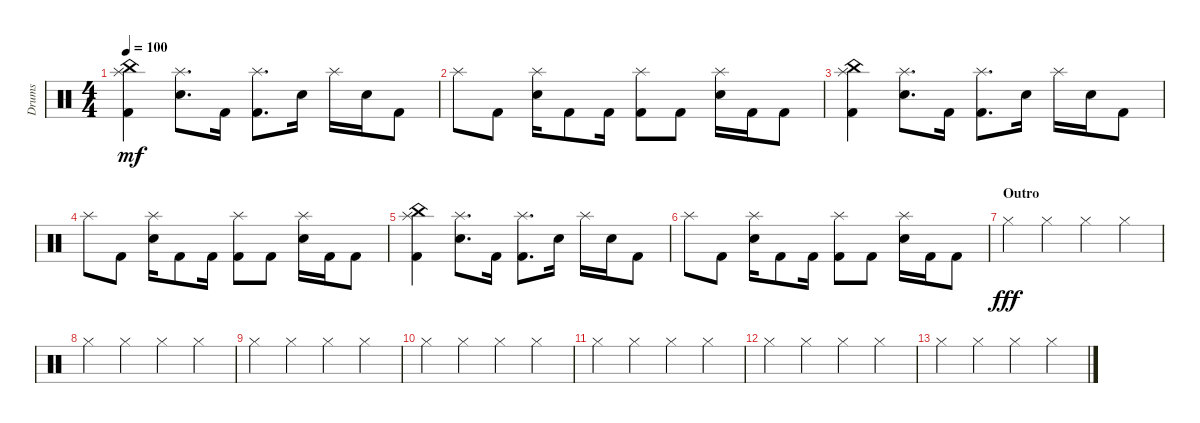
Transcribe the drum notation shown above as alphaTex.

\defaultSystemsLayout 4
\bracketExtendMode groupsimilarinstruments
\otherSystemsTrackNameOrientation horizontal
\track ("Prakarsh" "Drums") {instrument percussion}
\staff {score}
\articulation defaults
\ts (4 4)
\tempo 100
\clef neutral
\ks c
("Kick (hit) 2" "China (hit)" "Splash (hit)").4{dy mf beam Down} ("Snare (hit) 2" "Splash (hit)").8{d beam Down} "Kick (hit) 2".16{beam Down} ("Kick (hit) 2" "Splash (hit)").8{d beam Down} "Snare (hit) 2".16{beam Down} "Splash (hit)".16{beam Down} "Snare (hit) 2".16{beam Down} "Kick (hit) 2".8{beam Down} |
"Splash (hit)".8{beam Down} "Kick (hit) 2".8{beam Down} ("Snare (hit) 2" "Splash (hit)").16{beam Down} "Kick (hit) 2".8{beam Down} "Kick (hit) 2".16{beam Down} ("Kick (hit) 2" "Splash (hit)").8{beam Down} "Kick (hit) 2".8{beam Down} ("Snare (hit) 2" "Splash (hit)").16{beam Down} "Kick (hit) 2".16{beam Down} "Kick (hit) 2".8{beam Down} |
("Kick (hit) 2" "China (hit)" "Splash (hit)").4{beam Down} ("Snare (hit) 2" "Splash (hit)").8{d beam Down} "Kick (hit) 2".16{beam Down} ("Kick (hit) 2" "Splash (hit)").8{d beam Down} "Snare (hit) 2".16{beam Down} "Splash (hit)".16{beam Down} "Snare (hit) 2".16{beam Down} "Kick (hit) 2".8{beam Down} |
"Splash (hit)".8{beam Down} "Kick (hit) 2".8{beam Down} ("Snare (hit) 2" "Splash (hit)").16{beam Down} "Kick (hit) 2".8{beam Down} "Kick (hit) 2".16{beam Down} ("Kick (hit) 2" "Splash (hit)").8{beam Down} "Kick (hit) 2".8{beam Down} ("Snare (hit) 2" "Splash (hit)").16{beam Down} "Kick (hit) 2".16{beam Down} "Kick (hit) 2".8{beam Down} |
("Kick (hit) 2" "China (hit)" "Splash (hit)").4{beam Down} ("Snare (hit) 2" "Splash (hit)").8{d beam Down} "Kick (hit) 2".16{beam Down} ("Kick (hit) 2" "Splash (hit)").8{d beam Down} "Snare (hit) 2".16{beam Down} "Splash (hit)".16{beam Down} "Snare (hit) 2".16{beam Down} "Kick (hit) 2".8{beam Down} |
"Splash (hit)".8{beam Down} "Kick (hit) 2".8{beam Down} ("Snare (hit) 2" "Splash (hit)").16{beam Down} "Kick (hit) 2".8{beam Down} "Kick (hit) 2".16{beam Down} ("Kick (hit) 2" "Splash (hit)").8{beam Down} "Kick (hit) 2".8{beam Down} ("Snare (hit) 2" "Splash (hit)").16{beam Down} "Kick (hit) 2".16{beam Down} "Kick (hit) 2".8{beam Down} |
\section ("" "Outro")
"Hi-Hat (closed)".4{dy fff beam Down} "Hi-Hat (closed)".4{beam Down} "Hi-Hat (closed)".4{beam Down} "Hi-Hat (closed)".4{beam Down} |
"Hi-Hat (closed)".4{beam Down} "Hi-Hat (closed)".4{beam Down} "Hi-Hat (closed)".4{beam Down} "Hi-Hat (closed)".4{beam Down} |
"Hi-Hat (closed)".4{beam Down} "Hi-Hat (closed)".4{beam Down} "Hi-Hat (closed)".4{beam Down} "Hi-Hat (closed)".4{beam Down} |
"Hi-Hat (closed)".4{beam Down} "Hi-Hat (closed)".4{beam Down} "Hi-Hat (closed)".4{beam Down} "Hi-Hat (closed)".4{beam Down} |
"Hi-Hat (closed)".4{beam Down} "Hi-Hat (closed)".4{beam Down} "Hi-Hat (closed)".4{beam Down} "Hi-Hat (closed)".4{beam Down} |
"Hi-Hat (closed)".4{beam Down} "Hi-Hat (closed)".4{beam Down} "Hi-Hat (closed)".4{beam Down} "Hi-Hat (closed)".4{beam Down} |
"Hi-Hat (closed)".4{beam Down} "Hi-Hat (closed)".4{beam Down} "Hi-Hat (closed)".4{beam Down} "Hi-Hat (closed)".4{beam Down}
